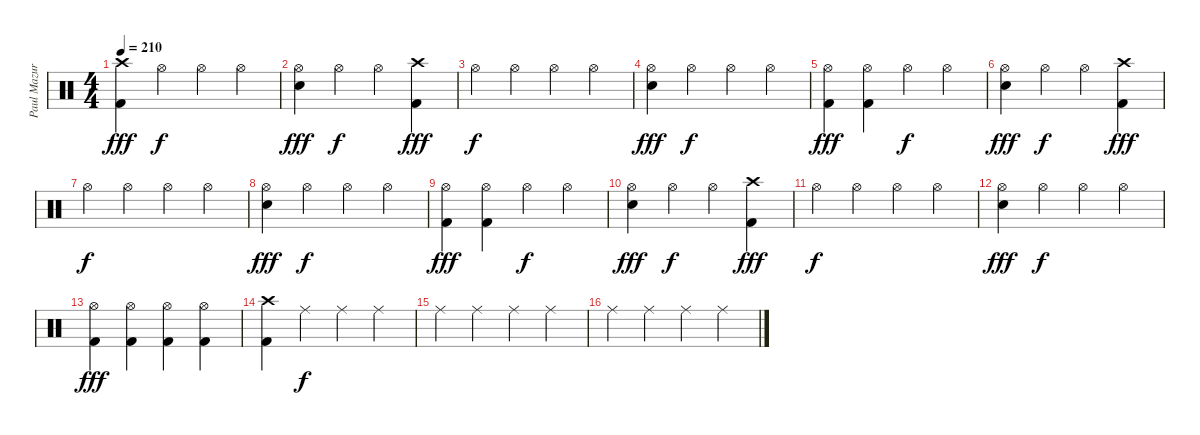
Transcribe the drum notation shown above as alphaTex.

\track ("Paul Mazurkiewicz" "Paul Mazur") {instrument percussion}
\staff {score}
\articulation defaults
\ts (4 4)
\tempo 210
\clef neutral
\ks c
("Crash high (hit)" "Kick (hit) 2").4{dy fff} "Hi-Hat (open)".4{dy f} "Hi-Hat (open)".4 "Hi-Hat (open)".4 |
("Hi-Hat (open)" "Electric Snare (hit)").4{dy fff} "Hi-Hat (open)".4{dy f} "Hi-Hat (open)".4 ("Crash high (hit)" "Kick (hit) 2").4{dy fff} |
"Hi-Hat (open)".4{dy f} "Hi-Hat (open)".4 "Hi-Hat (open)".4 "Hi-Hat (open)".4 |
("Hi-Hat (open)" "Electric Snare (hit)").4{dy fff} "Hi-Hat (open)".4{dy f} "Hi-Hat (open)".4 "Hi-Hat (open)".4 |
("Hi-Hat (open)" "Kick (hit) 2").4{dy fff} ("Hi-Hat (open)" "Kick (hit) 2").4 "Hi-Hat (open)".4{dy f} "Hi-Hat (open)".4 |
("Hi-Hat (open)" "Electric Snare (hit)").4{dy fff} "Hi-Hat (open)".4{dy f} "Hi-Hat (open)".4 ("Crash high (hit)" "Kick (hit) 2").4{dy fff} |
"Hi-Hat (open)".4{dy f} "Hi-Hat (open)".4 "Hi-Hat (open)".4 "Hi-Hat (open)".4 |
("Hi-Hat (open)" "Electric Snare (hit)").4{dy fff} "Hi-Hat (open)".4{dy f} "Hi-Hat (open)".4 "Hi-Hat (open)".4 |
("Hi-Hat (open)" "Kick (hit) 2").4{dy fff} ("Hi-Hat (open)" "Kick (hit) 2").4 "Hi-Hat (open)".4{dy f} "Hi-Hat (open)".4 |
("Hi-Hat (open)" "Electric Snare (hit)").4{dy fff} "Hi-Hat (open)".4{dy f} "Hi-Hat (open)".4 ("Crash high (hit)" "Kick (hit) 2").4{dy fff} |
"Hi-Hat (open)".4{dy f} "Hi-Hat (open)".4 "Hi-Hat (open)".4 "Hi-Hat (open)".4 |
("Hi-Hat (open)" "Electric Snare (hit)").4{dy fff} "Hi-Hat (open)".4{dy f} "Hi-Hat (open)".4 "Hi-Hat (open)".4 |
("Hi-Hat (open)" "Kick (hit) 2").4{dy fff} ("Hi-Hat (open)" "Kick (hit) 2").4 ("Hi-Hat (open)" "Kick (hit) 2").4 ("Hi-Hat (open)" "Kick (hit) 2").4 |
("Crash high (hit)" "Kick (hit) 2").4 "Ride (middle)".4{dy f} "Ride (middle)".4 "Ride (middle)".4 |
"Ride (middle)".4 "Ride (middle)".4 "Ride (middle)".4 "Ride (middle)".4 |
"Ride (middle)".4 "Ride (middle)".4 "Ride (middle)".4 "Ride (middle)".4
